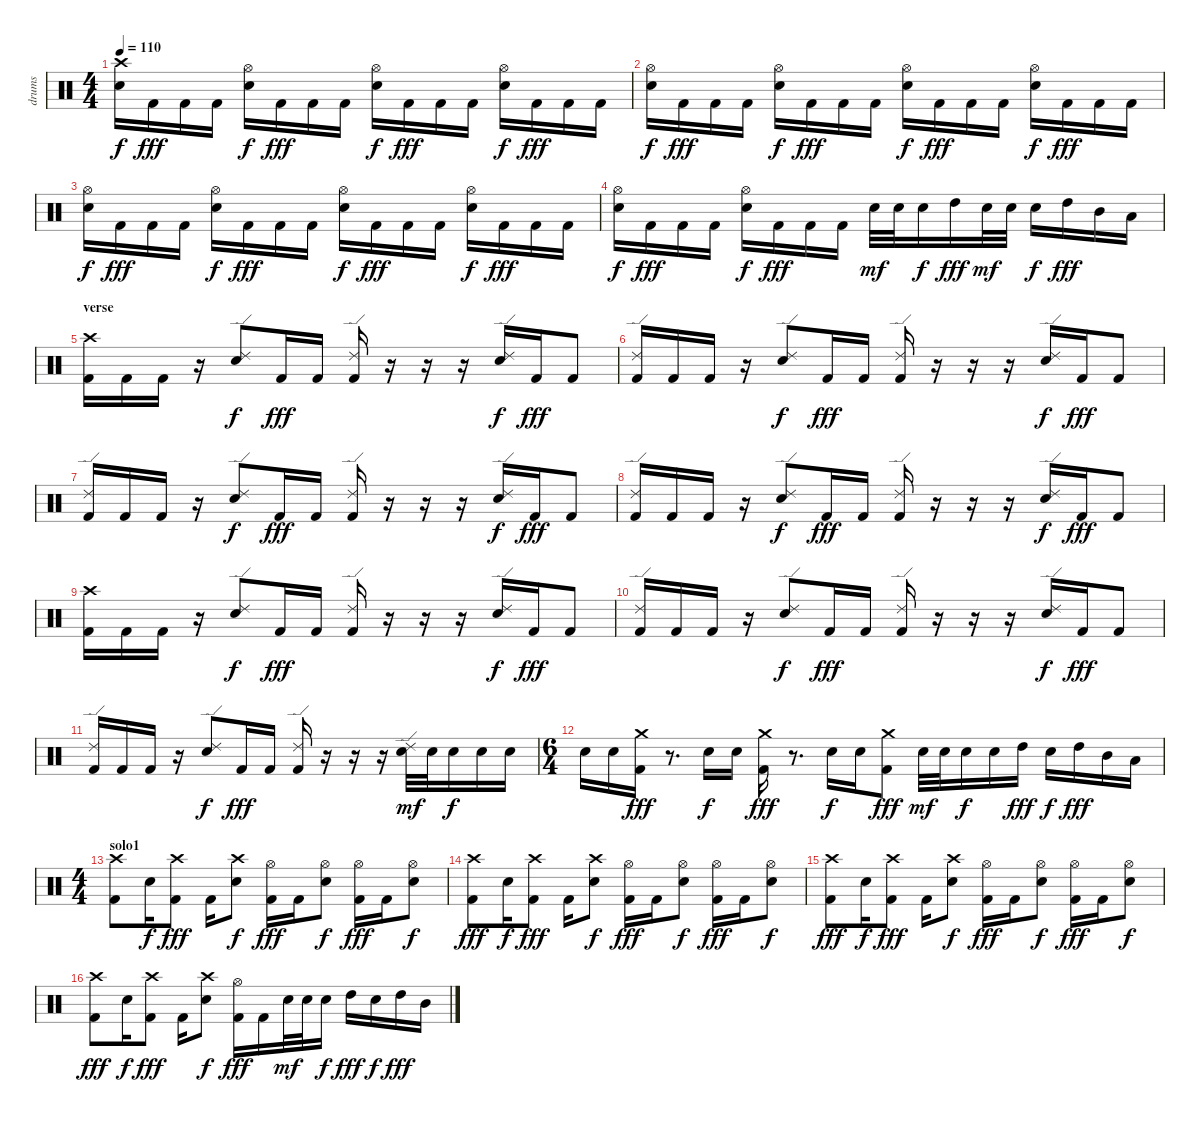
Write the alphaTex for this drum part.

\track ("drums" "drums") {instrument percussion}
\staff {score}
\articulation defaults
\ts (4 4)
\tempo 110
\clef neutral
\ks c
("Crash high (hit)" "Snare (hit) 2").16{dy f} "Kick (hit) 2".16{dy fff} "Kick (hit) 2".16 "Kick (hit) 2".16 ("Hi-Hat (open)" "Snare (hit) 2").16{dy f} "Kick (hit) 2".16{dy fff} "Kick (hit) 2".16 "Kick (hit) 2".16 ("Hi-Hat (open)" "Snare (hit) 2").16{dy f} "Kick (hit) 2".16{dy fff} "Kick (hit) 2".16 "Kick (hit) 2".16 ("Hi-Hat (open)" "Snare (hit) 2").16{dy f} "Kick (hit) 2".16{dy fff} "Kick (hit) 2".16 "Kick (hit) 2".16 |
("Hi-Hat (open)" "Snare (hit) 2").16{dy f} "Kick (hit) 2".16{dy fff} "Kick (hit) 2".16 "Kick (hit) 2".16 ("Hi-Hat (open)" "Snare (hit) 2").16{dy f} "Kick (hit) 2".16{dy fff} "Kick (hit) 2".16 "Kick (hit) 2".16 ("Hi-Hat (open)" "Snare (hit) 2").16{dy f} "Kick (hit) 2".16{dy fff} "Kick (hit) 2".16 "Kick (hit) 2".16 ("Hi-Hat (open)" "Snare (hit) 2").16{dy f} "Kick (hit) 2".16{dy fff} "Kick (hit) 2".16 "Kick (hit) 2".16 |
("Hi-Hat (open)" "Snare (hit) 2").16{dy f} "Kick (hit) 2".16{dy fff} "Kick (hit) 2".16 "Kick (hit) 2".16 ("Hi-Hat (open)" "Snare (hit) 2").16{dy f} "Kick (hit) 2".16{dy fff} "Kick (hit) 2".16 "Kick (hit) 2".16 ("Hi-Hat (open)" "Snare (hit) 2").16{dy f} "Kick (hit) 2".16{dy fff} "Kick (hit) 2".16 "Kick (hit) 2".16 ("Hi-Hat (open)" "Snare (hit) 2").16{dy f} "Kick (hit) 2".16{dy fff} "Kick (hit) 2".16 "Kick (hit) 2".16 |
("Hi-Hat (open)" "Snare (hit) 2").16{dy f} "Kick (hit) 2".16{dy fff} "Kick (hit) 2".16 "Kick (hit) 2".16 ("Hi-Hat (open)" "Snare (hit) 2").16{dy f} "Kick (hit) 2".16{dy fff} "Kick (hit) 2".16 "Kick (hit) 2".16 "Snare (hit) 2".32{dy mf} "Snare (hit) 2".32 "Snare (hit) 2".16{dy f} "High Tom (hit)".16{dy fff} "Snare (hit) 2".32{dy mf} "Snare (hit) 2".32 "Snare (hit) 2".16{dy f} "High Tom (hit)".16{dy fff} "Mid Tom (hit)".16 "Low Tom (hit)".16 |
\section ("" "verse")
("Crash high (hit)" "Kick (hit) 2").16 "Kick (hit) 2".16 "Kick (hit) 2".16 r.16 ("Ride (edge) 2" "Snare (hit) 2").8{dy f} "Kick (hit) 2".16{dy fff} "Kick (hit) 2".16 ("Ride (edge) 2" "Kick (hit) 2").16 r.16 r.16 r.16 ("Ride (edge) 2" "Snare (hit) 2").16{dy f} "Kick (hit) 2".16{dy fff} "Kick (hit) 2".8 |
("Ride (edge) 2" "Kick (hit) 2").16 "Kick (hit) 2".16 "Kick (hit) 2".16 r.16 ("Ride (edge) 2" "Snare (hit) 2").8{dy f} "Kick (hit) 2".16{dy fff} "Kick (hit) 2".16 ("Ride (edge) 2" "Kick (hit) 2").16 r.16 r.16 r.16 ("Ride (edge) 2" "Snare (hit) 2").16{dy f} "Kick (hit) 2".16{dy fff} "Kick (hit) 2".8 |
("Ride (edge) 2" "Kick (hit) 2").16 "Kick (hit) 2".16 "Kick (hit) 2".16 r.16 ("Ride (edge) 2" "Snare (hit) 2").8{dy f} "Kick (hit) 2".16{dy fff} "Kick (hit) 2".16 ("Ride (edge) 2" "Kick (hit) 2").16 r.16 r.16 r.16 ("Ride (edge) 2" "Snare (hit) 2").16{dy f} "Kick (hit) 2".16{dy fff} "Kick (hit) 2".8 |
("Ride (edge) 2" "Kick (hit) 2").16 "Kick (hit) 2".16 "Kick (hit) 2".16 r.16 ("Ride (edge) 2" "Snare (hit) 2").8{dy f} "Kick (hit) 2".16{dy fff} "Kick (hit) 2".16 ("Ride (edge) 2" "Kick (hit) 2").16 r.16 r.16 r.16 ("Ride (edge) 2" "Snare (hit) 2").16{dy f} "Kick (hit) 2".16{dy fff} "Kick (hit) 2".8 |
("Crash high (hit)" "Kick (hit) 2").16 "Kick (hit) 2".16 "Kick (hit) 2".16 r.16 ("Ride (edge) 2" "Snare (hit) 2").8{dy f} "Kick (hit) 2".16{dy fff} "Kick (hit) 2".16 ("Ride (edge) 2" "Kick (hit) 2").16 r.16 r.16 r.16 ("Ride (edge) 2" "Snare (hit) 2").16{dy f} "Kick (hit) 2".16{dy fff} "Kick (hit) 2".8 |
("Ride (edge) 2" "Kick (hit) 2").16 "Kick (hit) 2".16 "Kick (hit) 2".16 r.16 ("Ride (edge) 2" "Snare (hit) 2").8{dy f} "Kick (hit) 2".16{dy fff} "Kick (hit) 2".16 ("Ride (edge) 2" "Kick (hit) 2").16 r.16 r.16 r.16 ("Ride (edge) 2" "Snare (hit) 2").16{dy f} "Kick (hit) 2".16{dy fff} "Kick (hit) 2".8 |
("Ride (edge) 2" "Kick (hit) 2").16 "Kick (hit) 2".16 "Kick (hit) 2".16 r.16 ("Ride (edge) 2" "Snare (hit) 2").8{dy f} "Kick (hit) 2".16{dy fff} "Kick (hit) 2".16 ("Ride (edge) 2" "Kick (hit) 2").16 r.16 r.16 r.16 ("Ride (edge) 2" "Snare (hit) 2").32{dy mf} "Snare (hit) 2".32 "Snare (hit) 2".16{dy f} "Snare (hit) 2".16 "Snare (hit) 2".16 |
\ts (6 4)
"Snare (hit) 2".16 "Snare (hit) 2".16 ("Crash medium (hit)" "Kick (hit) 2").16{dy fff} r.8{d} "Snare (hit) 2".16{dy f} "Snare (hit) 2".16 ("Crash medium (hit)" "Kick (hit) 2").16{dy fff} r.8{d} "Snare (hit) 2".16{dy f} "Snare (hit) 2".16 ("Crash medium (hit)" "Kick (hit) 2").8{dy fff} "Snare (hit) 2".32{dy mf} "Snare (hit) 2".32 "Snare (hit) 2".16{dy f} "Snare (hit) 2".16 "High Tom (hit)".16{dy fff} "Snare (hit) 2".16{dy f} "High Tom (hit)".16{dy fff} "Mid Tom (hit)".16 "Low Tom (hit)".16 |
\ts (4 4)
\section ("" "solo1")
("Crash high (hit)" "Kick (hit) 2").8 "Snare (hit) 2".16{dy f} ("Crash high (hit)" "Kick (hit) 2").8{dy fff} "Kick (hit) 2".16 ("Crash high (hit)" "Snare (hit) 2").8{dy f} ("Hi-Hat (open)" "Kick (hit) 2").16{dy fff} "Kick (hit) 2".16 ("Hi-Hat (open)" "Snare (hit) 2").8{dy f} ("Hi-Hat (open)" "Kick (hit) 2").16{dy fff} "Kick (hit) 2".16 ("Hi-Hat (open)" "Snare (hit) 2").8{dy f} |
("Crash high (hit)" "Kick (hit) 2").8{dy fff} "Snare (hit) 2".16{dy f} ("Crash high (hit)" "Kick (hit) 2").8{dy fff} "Kick (hit) 2".16 ("Crash high (hit)" "Snare (hit) 2").8{dy f} ("Hi-Hat (open)" "Kick (hit) 2").16{dy fff} "Kick (hit) 2".16 ("Hi-Hat (open)" "Snare (hit) 2").8{dy f} ("Hi-Hat (open)" "Kick (hit) 2").16{dy fff} "Kick (hit) 2".16 ("Hi-Hat (open)" "Snare (hit) 2").8{dy f} |
("Crash high (hit)" "Kick (hit) 2").8{dy fff} "Snare (hit) 2".16{dy f} ("Crash high (hit)" "Kick (hit) 2").8{dy fff} "Kick (hit) 2".16 ("Crash high (hit)" "Snare (hit) 2").8{dy f} ("Hi-Hat (open)" "Kick (hit) 2").16{dy fff} "Kick (hit) 2".16 ("Hi-Hat (open)" "Snare (hit) 2").8{dy f} ("Hi-Hat (open)" "Kick (hit) 2").16{dy fff} "Kick (hit) 2".16 ("Hi-Hat (open)" "Snare (hit) 2").8{dy f} |
("Crash high (hit)" "Kick (hit) 2").8{dy fff} "Snare (hit) 2".16{dy f} ("Crash high (hit)" "Kick (hit) 2").8{dy fff} "Kick (hit) 2".16 ("Crash high (hit)" "Snare (hit) 2").8{dy f} ("Hi-Hat (open)" "Kick (hit) 2").16{dy fff} "Kick (hit) 2".16 "Snare (hit) 2".32{dy mf} "Snare (hit) 2".32 "Snare (hit) 2".16{dy f} "High Tom (hit)".16{dy fff} "Snare (hit) 2".16{dy f} "High Tom (hit)".16{dy fff} "Mid Tom (hit)".16
